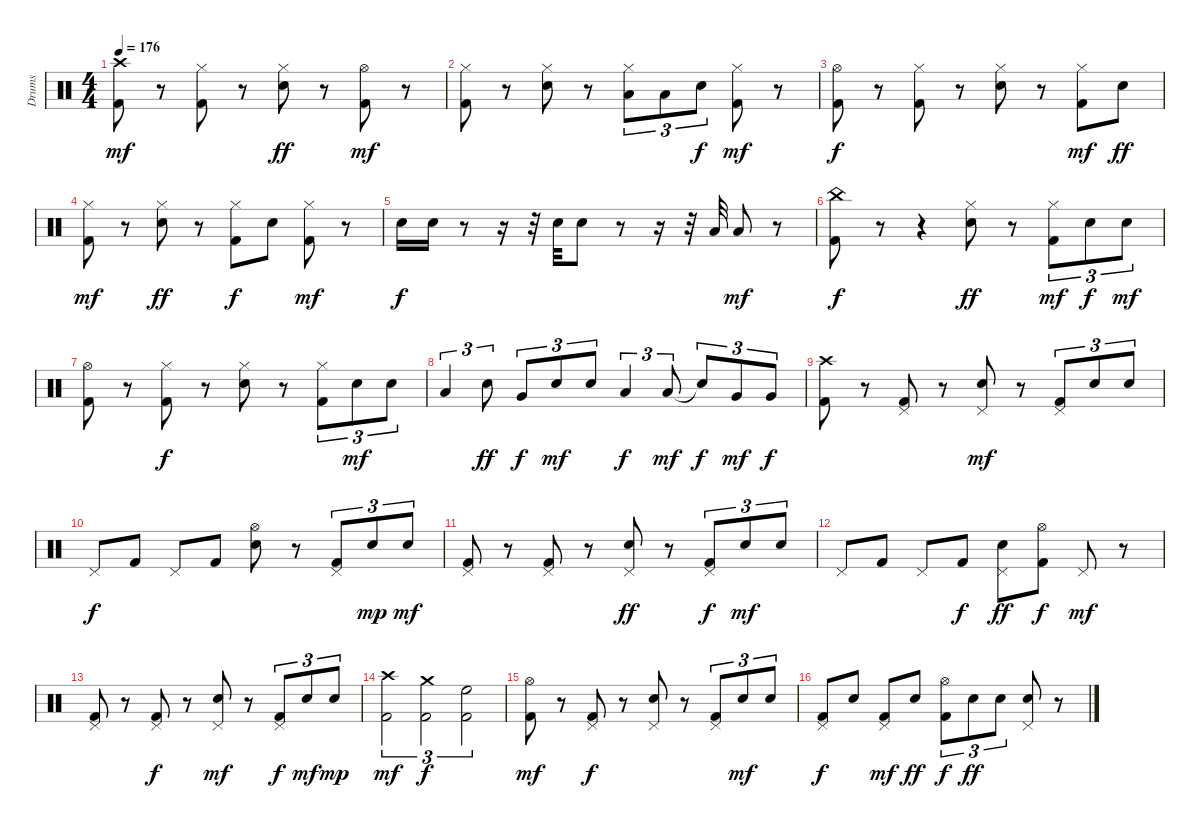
\track ("Drums" "Drums") {instrument percussion}
\staff {score}
\articulation defaults
\ts (4 4)
\tempo 176
\clef neutral
\ks c
("Crash high (hit)" "Kick (hit) 2").8{dy mf} r.8 ("Hi-Hat (closed)" "Kick (hit) 2").8 r.8 ("Hi-Hat (closed)" "Snare (hit) 2").8{dy ff} r.8 ("Hi-Hat (open)" "Kick (hit) 2").8{dy mf} r.8 |
("Hi-Hat (closed)" "Kick (hit) 2").8 r.8 ("Hi-Hat (closed)" "Snare (hit) 2").8 r.8 ("Hi-Hat (closed)" "Low Floor Tom (hit)").8{tu (3 2)} "Low Floor Tom (hit)".8{tu (3 2)} "Snare (hit) 2".8{tu (3 2) dy f} ("Hi-Hat (closed)" "Kick (hit) 2").8{dy mf} r.8 |
("Hi-Hat (open)" "Kick (hit) 2").8{dy f} r.8 ("Hi-Hat (closed)" "Kick (hit) 2").8 r.8 ("Hi-Hat (closed)" "Snare (hit) 2").8 r.8 ("Hi-Hat (closed)" "Kick (hit) 2").8{dy mf} "Snare (hit) 2".8{dy ff} |
("Hi-Hat (closed)" "Kick (hit) 2").8{dy mf} r.8 ("Hi-Hat (closed)" "Snare (hit) 2").8{dy ff} r.8 ("Hi-Hat (closed)" "Kick (hit) 2").8{dy f} "Snare (hit) 2".8 ("Hi-Hat (closed)" "Kick (hit) 2").8{dy mf} r.8 |
"Snare (hit) 2".16{dy f} "Snare (hit) 2".16 r.8 r.16 r.32 "Snare (hit) 2".32 "Snare (hit) 2".8 r.8 r.16 r.32 "Low Floor Tom (hit)".32 "Low Floor Tom (hit)".8{dy mf} r.8 |
("China (hit)" "Kick (hit) 2").8{dy f} r.8 r.4 ("Hi-Hat (closed)" "Snare (hit) 2").8{dy ff} r.8 ("Hi-Hat (closed)" "Kick (hit) 2").8{tu (3 2) dy mf} "Snare (hit) 2".8{tu (3 2) dy f} "Snare (hit) 2".8{tu (3 2) dy mf} |
("Hi-Hat (open)" "Kick (hit) 2").8 r.8 ("Hi-Hat (closed)" "Kick (hit) 2").8{dy f} r.8 ("Hi-Hat (closed)" "Snare (hit) 2").8 r.8 ("Hi-Hat (closed)" "Kick (hit) 2").8{tu (3 2)} "Snare (hit) 2".8{tu (3 2) dy mf} "Snare (hit) 2".8{tu (3 2)} |
"Low Tom (hit)".4{tu (3 2)} "Snare (hit) 2".8{tu (3 2) dy ff} "Very Low Tom (hit)".8{tu (3 2) dy f} "Snare (hit) 2".8{tu (3 2) dy mf} "Snare (hit) 2".8{tu (3 2)} "Low Tom (hit)".4{tu (3 2) dy f} "Low Tom (hit)".8{tu (3 2) dy mf} "Snare (hit)"{t}.8{tu (3 2) dy f} "Very Low Tom (hit)".8{tu (3 2) dy mf} "Very Low Tom (hit)".8{tu (3 2) dy f} |
("Crash high (hit)" "Kick (hit) 2").8 r.8 ("Pedal Hi-Hat (hit)" "Kick (hit) 2").8 r.8 ("Pedal Hi-Hat (hit)" "Snare (hit) 2").8{dy mf} r.8 ("Pedal Hi-Hat (hit)" "Kick (hit) 2").8{tu (3 2)} "Snare (hit) 2".8{tu (3 2)} "Snare (hit) 2".8{tu (3 2)} |
"Pedal Hi-Hat (hit)".8{dy f} "Kick (hit) 2".8 "Pedal Hi-Hat (hit)".8 "Kick (hit) 2".8 ("Hi-Hat (open)" "Snare (hit) 2").8 r.8 ("Pedal Hi-Hat (hit)" "Kick (hit) 2").8{tu (3 2)} "Snare (hit) 2".8{tu (3 2) dy mp} "Snare (hit) 2".8{tu (3 2) dy mf} |
("Pedal Hi-Hat (hit)" "Kick (hit) 2").8 r.8 ("Pedal Hi-Hat (hit)" "Kick (hit) 2").8 r.8 ("Pedal Hi-Hat (hit)" "Snare (hit) 2").8{dy ff} r.8 ("Pedal Hi-Hat (hit)" "Kick (hit) 2").8{tu (3 2) dy f} "Snare (hit) 2".8{tu (3 2) dy mf} "Snare (hit) 2".8{tu (3 2)} |
"Pedal Hi-Hat (hit)".8 "Kick (hit) 2".8 "Pedal Hi-Hat (hit)".8 "Kick (hit) 2".8{dy f} ("Pedal Hi-Hat (hit)" "Snare (hit) 2").8{dy ff} ("Hi-Hat (open)" "Kick (hit) 2").8{dy f} "Pedal Hi-Hat (hit)".8{dy mf} r.8 |
("Pedal Hi-Hat (hit)" "Kick (hit) 2").8 r.8 ("Pedal Hi-Hat (hit)" "Kick (hit) 2").8{dy f} r.8 ("Pedal Hi-Hat (hit)" "Snare (hit) 2").8{dy mf} r.8 ("Pedal Hi-Hat (hit)" "Kick (hit) 2").8{tu (3 2) dy f} "Snare (hit) 2".8{tu (3 2) dy mf} "Snare (hit) 2".8{tu (3 2) dy mp} |
("Crash high (hit)" "Kick (hit) 2").2{tu (3 2) dy mf} ("Crash medium (hit)" "Kick (hit) 2").2{tu (3 2) dy f} ("High Floor Tom (hit)" "Kick (hit) 2").2{tu (3 2)} |
("Hi-Hat (open)" "Kick (hit) 2").8{dy mf} r.8 ("Pedal Hi-Hat (hit)" "Kick (hit) 2").8{dy f} r.8 ("Pedal Hi-Hat (hit)" "Snare (hit) 2").8 r.8 ("Pedal Hi-Hat (hit)" "Kick (hit) 2").8{tu (3 2)} "Snare (hit) 2".8{tu (3 2) dy mf} "Snare (hit) 2".8{tu (3 2)} |
("Pedal Hi-Hat (hit)" "Kick (hit) 2").8{dy f} "Snare (hit) 2".8 ("Pedal Hi-Hat (hit)" "Kick (hit) 2").8{dy mf} "Snare (hit) 2".8{dy ff} ("Hi-Hat (open)" "Kick (hit) 2").8{tu (3 2) dy f} "Snare (hit) 2".8{tu (3 2) dy ff} "Snare (hit) 2".8{tu (3 2)} ("Pedal Hi-Hat (hit)" "Snare (hit) 2").8 r.8
